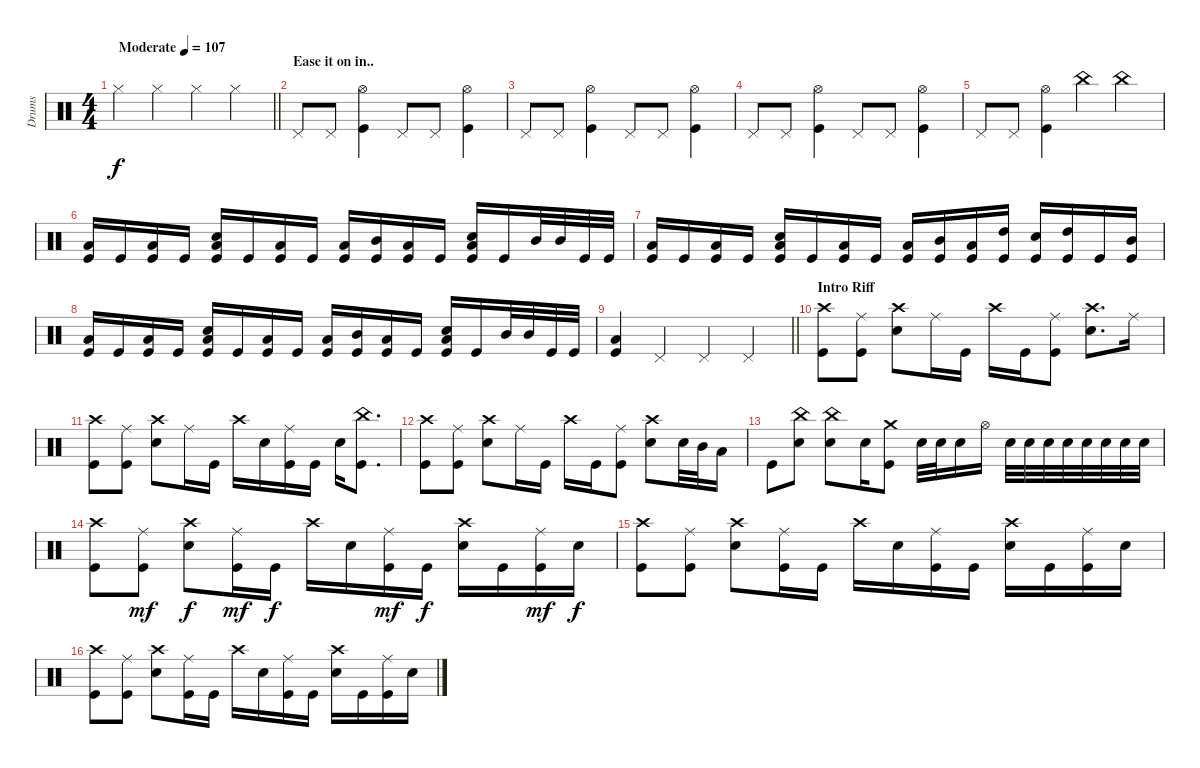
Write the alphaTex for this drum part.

\track ("Drums" "Drums") {instrument percussion}
\staff {score}
\articulation defaults
\ts (4 4)
\tempo (107 "Moderate")
\clef neutral
\barLineRight lightlight
\ks c "Hi-Hat (closed)".4{dy f} "Hi-Hat (closed)".4 "Hi-Hat (closed)".4 "Hi-Hat (closed)".4
|
\section ("" "Ease it on in..")
"Pedal Hi-Hat (hit)".8 "Pedal Hi-Hat (hit)".8 ("Hi-Hat (open)" "Kick (hit)").4 "Pedal Hi-Hat (hit)".8 "Pedal Hi-Hat (hit)".8 ("Hi-Hat (open)" "Kick (hit)").4 |
"Pedal Hi-Hat (hit)".8 "Pedal Hi-Hat (hit)".8 ("Hi-Hat (open)" "Kick (hit)").4 "Pedal Hi-Hat (hit)".8 "Pedal Hi-Hat (hit)".8 ("Hi-Hat (open)" "Kick (hit)").4 |
"Pedal Hi-Hat (hit)".8 "Pedal Hi-Hat (hit)".8 ("Hi-Hat (open)" "Kick (hit)").4 "Pedal Hi-Hat (hit)".8 "Pedal Hi-Hat (hit)".8 ("Hi-Hat (open)" "Kick (hit)").4 |
"Pedal Hi-Hat (hit)".8 "Pedal Hi-Hat (hit)".8 ("Hi-Hat (open)" "Kick (hit)").4 "China (hit)".4 "China (hit)".4 |
("Low Tom (hit)" "Kick (hit)").16 "Kick (hit)".16 ("Low Tom (hit)" "Kick (hit)").16 "Kick (hit)".16 ("Low Tom (hit)" "Snare (hit) 2" "Kick (hit)").16 "Kick (hit)".16 ("Low Tom (hit)" "Kick (hit)").16 "Kick (hit)".16 ("Low Tom (hit)" "Kick (hit)").16 ("Mid Tom (hit)" "Kick (hit)").16 ("Low Tom (hit)" "Kick (hit)").16 "Kick (hit)".16 ("Low Tom (hit)" "Snare (hit) 2" "Kick (hit)").16 "Kick (hit)".16 "Mid Tom (hit)".32 "Mid Tom (hit)".32 "Kick (hit)".32 "Kick (hit)".32 |
("Low Tom (hit)" "Kick (hit)").16 "Kick (hit)".16 ("Low Tom (hit)" "Kick (hit)").16 "Kick (hit)".16 ("Low Tom (hit)" "Snare (hit) 2" "Kick (hit)").16 "Kick (hit)".16 ("Low Tom (hit)" "Kick (hit)").16 "Kick (hit)".16 ("Low Tom (hit)" "Kick (hit)").16 ("Mid Tom (hit)" "Kick (hit)").16 ("Low Tom (hit)" "Kick (hit)").16 ("High Tom (hit)" "Kick (hit)").16 ("Snare (hit) 2" "Kick (hit)").16 ("High Tom (hit)" "Kick (hit)").16 "Kick (hit)".16 ("Mid Tom (hit)" "Kick (hit)").16 |
("Low Tom (hit)" "Kick (hit)").16 "Kick (hit)".16 ("Low Tom (hit)" "Kick (hit)").16 "Kick (hit)".16 ("Low Tom (hit)" "Snare (hit) 2" "Kick (hit)").16 "Kick (hit)".16 ("Low Tom (hit)" "Kick (hit)").16 "Kick (hit)".16 ("Low Tom (hit)" "Kick (hit)").16 ("Mid Tom (hit)" "Kick (hit)").16 ("Low Tom (hit)" "Kick (hit)").16 "Kick (hit)".16 ("Low Tom (hit)" "Snare (hit) 2" "Kick (hit)").16 "Kick (hit)".16 "Mid Tom (hit)".32 "Mid Tom (hit)".32 "Kick (hit)".32 "Kick (hit)".32 |
\barLineRight lightlight
("Low Tom (hit)" "Kick (hit)").4 "Pedal Hi-Hat (hit)".4 "Pedal Hi-Hat (hit)".4 "Pedal Hi-Hat (hit)".4 |
\section ("" "Intro Riff")
("Crash high (hit)" "Kick (hit)").8 ("Ride (middle)" "Kick (hit)").8 ("Crash high (hit)" "Snare (hit) 2").8 "Ride (middle)".16 "Kick (hit)".16 "Crash high (hit)".16 "Kick (hit)".16 ("Ride (middle)" "Kick (hit)").8 ("Crash high (hit)" "Snare (hit) 2").8{d} "Ride (middle)".16 |
("Crash high (hit)" "Kick (hit)").8 ("Ride (middle)" "Kick (hit)").8 ("Crash high (hit)" "Snare (hit) 2").8 "Ride (middle)".16 "Kick (hit)".16 "Crash high (hit)".16 "Snare (hit) 2".16 ("Ride (middle)" "Kick (hit)").16 "Kick (hit)".16 "Snare (hit) 2".16 ("China (hit)" "Kick (hit)").8{d} |
("Crash high (hit)" "Kick (hit)").8 ("Ride (middle)" "Kick (hit)").8 ("Crash high (hit)" "Snare (hit) 2").8 "Ride (middle)".16 "Kick (hit)".16 "Crash high (hit)".16 "Kick (hit)".16 ("Ride (middle)" "Kick (hit)").8 ("Crash high (hit)" "Snare (hit) 2").8 "Snare (hit) 2".32 "Mid Tom (hit)".32 "Low Tom (hit)".16 |
"Kick (hit)".8 ("China (hit)" "Snare (hit) 2").8 ("China (hit)" "Snare (hit) 2").8 "Snare (hit) 2".16 ("Crash medium (hit)" "Kick (hit)").8 "Snare (hit) 2".32 "Snare (hit) 2".32 "Snare (hit) 2".16 "Hi-Hat (open)".16 "Snare (hit) 2".32 "Snare (hit) 2".32 "Snare (hit) 2".32 "Snare (hit) 2".32 "Snare (hit) 2".32 "Snare (hit) 2".32 "Snare (hit) 2".32 "Snare (hit) 2".32 |
("Crash high (hit)" "Kick (hit)").8 ("Ride (middle)" "Kick (hit)").8{dy mf} ("Crash high (hit)" "Snare (hit) 2").8{dy f} ("Ride (middle)" "Kick (hit)").16{dy mf} "Kick (hit)".16{dy f} "Crash high (hit)".16 "Snare (hit) 2".16 ("Ride (middle)" "Kick (hit)").16{dy mf} "Kick (hit)".16{dy f} ("Crash high (hit)" "Snare (hit) 2").16 "Kick (hit)".16 ("Ride (middle)" "Kick (hit)").16{dy mf} "Snare (hit) 2".16{dy f} |
("Crash high (hit)" "Kick (hit)").8 ("Ride (middle)" "Kick (hit)").8 ("Crash high (hit)" "Snare (hit) 2").8 ("Ride (middle)" "Kick (hit)").16 "Kick (hit)".16 "Crash high (hit)".16 "Snare (hit) 2".16 ("Ride (middle)" "Kick (hit)").16 "Kick (hit)".16 ("Crash high (hit)" "Snare (hit) 2").16 "Kick (hit)".16 ("Ride (middle)" "Kick (hit)").16 "Snare (hit) 2".16 |
("Crash high (hit)" "Kick (hit)").8 ("Ride (middle)" "Kick (hit)").8 ("Crash high (hit)" "Snare (hit) 2").8 ("Ride (middle)" "Kick (hit)").16 "Kick (hit)".16 "Crash high (hit)".16 "Snare (hit) 2".16 ("Ride (middle)" "Kick (hit)").16 "Kick (hit)".16 ("Crash high (hit)" "Snare (hit) 2").16 "Kick (hit)".16 ("Ride (middle)" "Kick (hit)").16 "Snare (hit) 2".16
